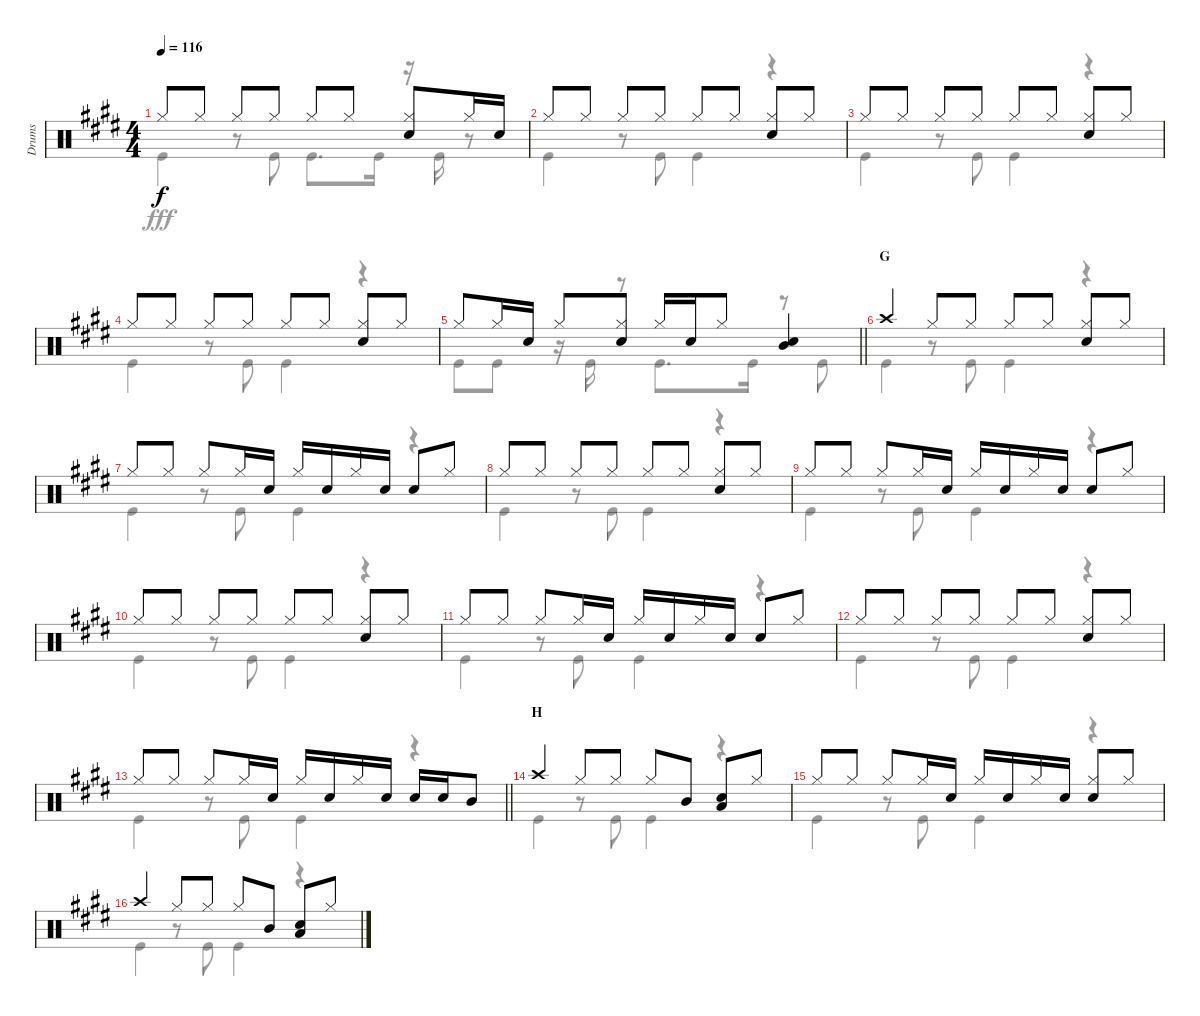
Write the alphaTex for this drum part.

\track ("Drums" "Drums") {instrument percussion}
\staff {score}
\articulation defaults
\voice
\ts (4 4)
\tempo 116
\clef neutral
\ks e "Hi-Hat (closed)".8{dy f} "Hi-Hat (closed)".8 "Hi-Hat (closed)".8 "Hi-Hat (closed)".8 "Hi-Hat (closed)".8 "Hi-Hat (closed)".8
("Hi-Hat (closed)" "Snare (hit) 2").8 "Hi-Hat (closed)".16 "Snare (hit) 2".16 |
"Hi-Hat (closed)".8 "Hi-Hat (closed)".8 "Hi-Hat (closed)".8 "Hi-Hat (closed)".8 "Hi-Hat (closed)".8 "Hi-Hat (closed)".8 ("Hi-Hat (closed)" "Snare (hit) 2").8 "Hi-Hat (closed)".8 |
"Hi-Hat (closed)".8 "Hi-Hat (closed)".8 "Hi-Hat (closed)".8 "Hi-Hat (closed)".8 "Hi-Hat (closed)".8 "Hi-Hat (closed)".8 ("Hi-Hat (closed)" "Snare (hit) 2").8 "Hi-Hat (closed)".8 |
"Hi-Hat (closed)".8 "Hi-Hat (closed)".8 "Hi-Hat (closed)".8 "Hi-Hat (closed)".8 "Hi-Hat (closed)".8 "Hi-Hat (closed)".8 ("Hi-Hat (closed)" "Snare (hit) 2").8 "Hi-Hat (closed)".8 |
\barLineRight lightlight "Hi-Hat (closed)".8 "Hi-Hat (closed)".16 "Snare (hit) 2".16 "Hi-Hat (closed)".8
("Hi-Hat (closed)" "Snare (hit) 2").8 "Hi-Hat (closed)".16 "Snare (hit) 2".16 "Hi-Hat (closed)".8 ("Snare (hit) 2" "Mid Tom (hit)").4 |
\section ("" "G")
"Crash high (hit)".4 "Hi-Hat (closed)".8 "Hi-Hat (closed)".8 "Hi-Hat (closed)".8 "Hi-Hat (closed)".8 ("Hi-Hat (closed)" "Snare (hit) 2").8 "Hi-Hat (closed)".8 |
"Hi-Hat (closed)".8 "Hi-Hat (closed)".8 "Hi-Hat (closed)".8 "Hi-Hat (closed)".16 "Snare (hit) 2".16 "Hi-Hat (closed)".16 "Snare (hit) 2".16 "Hi-Hat (closed)".16 "Snare (hit) 2".16 "Snare (hit) 2".8 "Hi-Hat (closed)".8 |
"Hi-Hat (closed)".8 "Hi-Hat (closed)".8 "Hi-Hat (closed)".8 "Hi-Hat (closed)".8 "Hi-Hat (closed)".8 "Hi-Hat (closed)".8 ("Hi-Hat (closed)" "Snare (hit) 2").8 "Hi-Hat (closed)".8 |
"Hi-Hat (closed)".8 "Hi-Hat (closed)".8 "Hi-Hat (closed)".8 "Hi-Hat (closed)".16 "Snare (hit) 2".16 "Hi-Hat (closed)".16 "Snare (hit) 2".16 "Hi-Hat (closed)".16 "Snare (hit) 2".16 "Snare (hit) 2".8 "Hi-Hat (closed)".8 |
"Hi-Hat (closed)".8 "Hi-Hat (closed)".8 "Hi-Hat (closed)".8 "Hi-Hat (closed)".8 "Hi-Hat (closed)".8 "Hi-Hat (closed)".8 ("Hi-Hat (closed)" "Snare (hit) 2").8 "Hi-Hat (closed)".8 |
"Hi-Hat (closed)".8 "Hi-Hat (closed)".8 "Hi-Hat (closed)".8 "Hi-Hat (closed)".16 "Snare (hit) 2".16 "Hi-Hat (closed)".16 "Snare (hit) 2".16 "Hi-Hat (closed)".16 "Snare (hit) 2".16 "Snare (hit) 2".8 "Hi-Hat (closed)".8 |
"Hi-Hat (closed)".8 "Hi-Hat (closed)".8 "Hi-Hat (closed)".8 "Hi-Hat (closed)".8 "Hi-Hat (closed)".8 "Hi-Hat (closed)".8 ("Hi-Hat (closed)" "Snare (hit) 2").8 "Hi-Hat (closed)".8 |
\barLineRight lightlight "Hi-Hat (closed)".8 "Hi-Hat (closed)".8 "Hi-Hat (closed)".8 "Hi-Hat (closed)".16 "Snare (hit) 2".16 "Hi-Hat (closed)".16 "Snare (hit) 2".16 "Hi-Hat (closed)".16 "Snare (hit) 2".16 "Snare (hit) 2".16 "Snare (hit) 2".16 "Mid Tom (hit)".8
|
\section ("" "H")
"Crash high (hit)".4 "Hi-Hat (closed)".8 "Hi-Hat (closed)".8 "Hi-Hat (closed)".8 "Mid Tom (hit)".8 ("Snare (hit) 2" "Low Tom (hit)").8 "Hi-Hat (closed)".8 |
"Hi-Hat (closed)".8 "Hi-Hat (closed)".8 "Hi-Hat (closed)".8 "Hi-Hat (closed)".16 "Snare (hit) 2".16 "Hi-Hat (closed)".16 "Snare (hit) 2".16 "Hi-Hat (closed)".16 "Snare (hit) 2".16 ("Snare (hit) 2" "Hi-Hat (closed)").8 "Hi-Hat (closed)".8 |
"Crash high (hit)".4 "Hi-Hat (closed)".8 "Hi-Hat (closed)".8 "Hi-Hat (closed)".8 "Mid Tom (hit)".8 ("Snare (hit) 2" "Low Tom (hit)").8 "Hi-Hat (closed)".8
\voice
\clef neutral
\ottava regular
\simile none
\ks e "Kick (hit)".4{dy fff}
r.8 "Kick (hit)".8 "Kick (hit)".8{d} "Kick (hit)".16 r.16 "Kick (hit)".16 r.8 |
"Kick (hit)".4 r.8 "Kick (hit)".8 "Kick (hit)".4 r.4 |
"Kick (hit)".4 r.8 "Kick (hit)".8 "Kick (hit)".4 r.4 |
"Kick (hit)".4 r.8 "Kick (hit)".8 "Kick (hit)".4 r.4 |
\barLineRight lightlight "Kick (hit)".8 "Kick (hit)".8
r.16 "Kick (hit)".16 r.8 "Kick (hit)".8{d} "Kick (hit)".16 r.8 "Kick (hit)".8 |
"Kick (hit)".4 r.8 "Kick (hit)".8 "Kick (hit)".4 r.4 |
"Kick (hit)".4 r.8 "Kick (hit)".8 "Kick (hit)".4 r.4 |
"Kick (hit)".4 r.8 "Kick (hit)".8 "Kick (hit)".4 r.4 |
"Kick (hit)".4 r.8 "Kick (hit)".8 "Kick (hit)".4 r.4 |
"Kick (hit)".4 r.8 "Kick (hit)".8 "Kick (hit)".4 r.4 |
"Kick (hit)".4 r.8 "Kick (hit)".8 "Kick (hit)".4 r.4 |
"Kick (hit)".4 r.8 "Kick (hit)".8 "Kick (hit)".4 r.4 |
\barLineRight lightlight "Kick (hit)".4
r.8 "Kick (hit)".8 "Kick (hit)".4 r.4 |
"Kick (hit)".4 r.8 "Kick (hit)".8 "Kick (hit)".4 r.4 |
"Kick (hit)".4 r.8 "Kick (hit)".8 "Kick (hit)".4 r.4 |
"Kick (hit)".4 r.8 "Kick (hit)".8 "Kick (hit)".4 r.4
